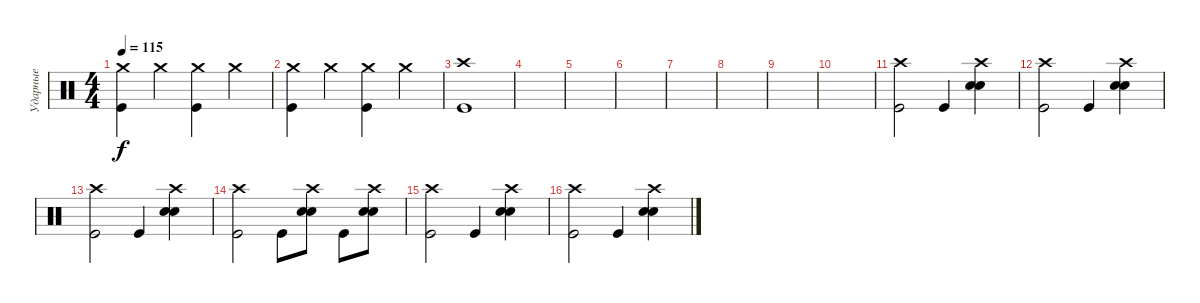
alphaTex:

\track ("Ударные" "Ударные") {instrument percussion}
\staff {score}
\articulation defaults
\ts (4 4)
\tempo 115
\clef neutral
\ks c
("Crash medium (hit)" "Kick (hit)").4{dy f} "Crash medium (hit)".4 ("Crash medium (hit)" "Kick (hit)").4 "Crash medium (hit)".4 |
("Crash medium (hit)" "Kick (hit)").4 "Crash medium (hit)".4 ("Crash medium (hit)" "Kick (hit)").4 "Crash medium (hit)".4 |
("Crash high (hit)" "Kick (hit)").1 |
|
|
|
|
|
|
|
("Crash high (hit)" "Kick (hit)").2 "Kick (hit)".4 ("Crash high (hit)" "Snare (hit) 2" "Snare (hit) 2").4 |
("Crash high (hit)" "Kick (hit)").2 "Kick (hit)".4 ("Crash high (hit)" "Snare (hit) 2" "Snare (hit) 2").4 |
("Crash high (hit)" "Kick (hit)").2 "Kick (hit)".4 ("Crash high (hit)" "Snare (hit) 2" "Snare (hit) 2").4 |
("Crash high (hit)" "Kick (hit)").2 "Kick (hit)".8 ("Crash high (hit)" "Snare (hit) 2" "Snare (hit) 2").8 "Kick (hit)".8 ("Crash high (hit)" "Snare (hit) 2" "Snare (hit) 2").8 |
("Crash high (hit)" "Kick (hit)").2 "Kick (hit)".4 ("Crash high (hit)" "Snare (hit) 2" "Snare (hit) 2").4 |
("Crash high (hit)" "Kick (hit)").2 "Kick (hit)".4 ("Crash high (hit)" "Snare (hit) 2" "Snare (hit) 2").4
